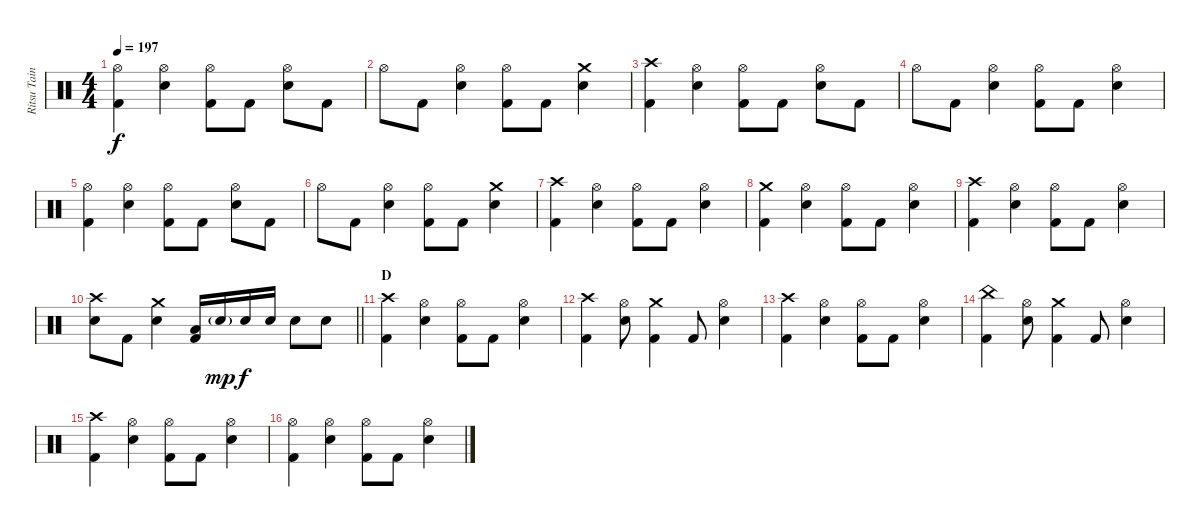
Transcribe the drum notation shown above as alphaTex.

\track ("Ritsu Tainaka" "Ritsu Tain") {instrument percussion}
\staff {score}
\articulation defaults
\ts (4 4)
\tempo 197
\clef neutral
\ks c
("Hi-Hat (open)" "Kick (hit) 2").4{dy f} ("Hi-Hat (open)" "Electric Snare (hit)").4 ("Hi-Hat (open)" "Kick (hit) 2").8 "Kick (hit) 2".8 ("Hi-Hat (open)" "Electric Snare (hit)").8 "Kick (hit) 2".8 |
"Hi-Hat (open)".8 "Kick (hit) 2".8 ("Hi-Hat (open)" "Electric Snare (hit)").4 ("Hi-Hat (open)" "Kick (hit) 2").8 "Kick (hit) 2".8 ("Crash medium (hit)" "Electric Snare (hit)").4 |
("Crash high (hit)" "Kick (hit) 2").4 ("Hi-Hat (open)" "Electric Snare (hit)").4 ("Hi-Hat (open)" "Kick (hit) 2").8 "Kick (hit) 2".8 ("Hi-Hat (open)" "Electric Snare (hit)").8 "Kick (hit) 2".8 |
"Hi-Hat (open)".8 "Kick (hit) 2".8 ("Hi-Hat (open)" "Electric Snare (hit)").4 ("Hi-Hat (open)" "Kick (hit) 2").8 "Kick (hit) 2".8 ("Hi-Hat (open)" "Electric Snare (hit)").4 |
("Hi-Hat (open)" "Kick (hit) 2").4 ("Hi-Hat (open)" "Electric Snare (hit)").4 ("Hi-Hat (open)" "Kick (hit) 2").8 "Kick (hit) 2".8 ("Hi-Hat (open)" "Electric Snare (hit)").8 "Kick (hit) 2".8 |
"Hi-Hat (open)".8 "Kick (hit) 2".8 ("Hi-Hat (open)" "Electric Snare (hit)").4 ("Hi-Hat (open)" "Kick (hit) 2").8 "Kick (hit) 2".8 ("Crash medium (hit)" "Electric Snare (hit)").4 |
("Crash high (hit)" "Kick (hit) 2").4 ("Hi-Hat (open)" "Electric Snare (hit)").4 ("Hi-Hat (open)" "Kick (hit) 2").8 "Kick (hit) 2".8 ("Hi-Hat (open)" "Electric Snare (hit)").4 |
("Crash medium (hit)" "Kick (hit) 2").4 ("Hi-Hat (open)" "Electric Snare (hit)").4 ("Hi-Hat (open)" "Kick (hit) 2").8 "Kick (hit) 2".8 ("Hi-Hat (open)" "Electric Snare (hit)").4 |
("Crash high (hit)" "Kick (hit) 2").4 ("Hi-Hat (open)" "Electric Snare (hit)").4 ("Hi-Hat (open)" "Kick (hit) 2").8 "Kick (hit) 2".8 ("Hi-Hat (open)" "Electric Snare (hit)").4 |
\barLineRight lightlight
("Crash high (hit)" "Electric Snare (hit)").8 "Kick (hit) 2".8 ("Crash medium (hit)" "Electric Snare (hit)").4 ("Low Tom (hit)" "Kick (hit) 2").16 "Electric Snare (hit)"{g}.16{dy mp} "Electric Snare (hit)".16{dy f} "Electric Snare (hit)".16 "Electric Snare (hit)".8 "Electric Snare (hit)".8 |
\section ("" "D")
("Crash high (hit)" "Kick (hit) 2").4 ("Hi-Hat (open)" "Electric Snare (hit)").4 ("Hi-Hat (open)" "Kick (hit) 2").8 "Kick (hit) 2".8 ("Hi-Hat (open)" "Electric Snare (hit)").4 |
("Crash high (hit)" "Kick (hit) 2").4 ("Hi-Hat (open)" "Electric Snare (hit)").8 ("Crash medium (hit)" "Kick (hit) 2").4 "Kick (hit) 2".8 ("Hi-Hat (open)" "Electric Snare (hit)").4 |
("Crash high (hit)" "Kick (hit) 2").4 ("Hi-Hat (open)" "Electric Snare (hit)").4 ("Hi-Hat (open)" "Kick (hit) 2").8 "Kick (hit) 2".8 ("Hi-Hat (open)" "Electric Snare (hit)").4 |
("China (hit)" "Kick (hit) 2").4 ("Hi-Hat (open)" "Electric Snare (hit)").8 ("Crash medium (hit)" "Kick (hit) 2").4 "Kick (hit) 2".8 ("Hi-Hat (open)" "Electric Snare (hit)").4 |
("Crash high (hit)" "Kick (hit) 2").4 ("Hi-Hat (open)" "Electric Snare (hit)").4 ("Hi-Hat (open)" "Kick (hit) 2").8 "Kick (hit) 2".8 ("Hi-Hat (open)" "Electric Snare (hit)").4 |
("Hi-Hat (open)" "Kick (hit) 2").4 ("Hi-Hat (open)" "Electric Snare (hit)").4 ("Hi-Hat (open)" "Kick (hit) 2").8 "Kick (hit) 2".8 ("Hi-Hat (open)" "Electric Snare (hit)").4
